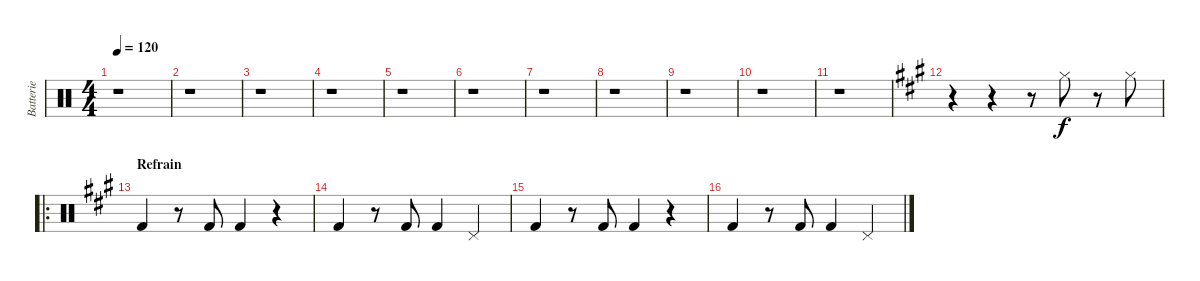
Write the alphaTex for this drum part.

\track ("Batterie" "Batterie") {instrument percussion}
\staff {score}
\articulation defaults
\ts (4 4)
\tempo 120
\clef neutral
\ks c
r.1{dy f} |
r.1 |
r.1 |
r.1 |
r.1 |
r.1 |
r.1 |
r.1 |
r.1 |
r.1 |
r.1 |
\ks a
r.4 r.4 r.8 "Hi-Hat (closed)".8 r.8 "Hi-Hat (closed)".8 |
\ro
\section ("" "Refrain")
"Kick (hit) 2".4 r.8 "Kick (hit) 2".8 "Kick (hit) 2".4 r.4 |
"Kick (hit) 2".4 r.8 "Kick (hit) 2".8 "Kick (hit) 2".4 "Pedal Hi-Hat (hit)".4 |
"Kick (hit) 2".4 r.8 "Kick (hit) 2".8 "Kick (hit) 2".4 r.4 |
"Kick (hit) 2".4 r.8 "Kick (hit) 2".8 "Kick (hit) 2".4 "Pedal Hi-Hat (hit)".4
